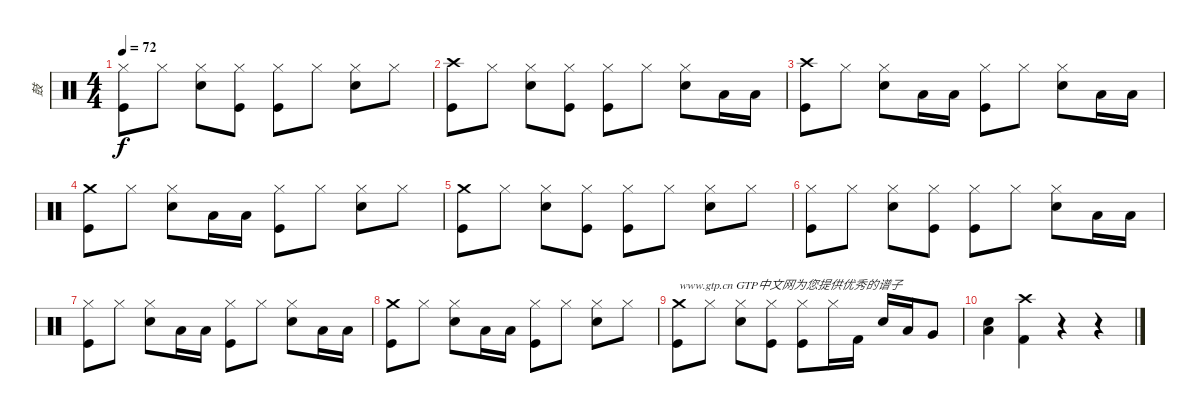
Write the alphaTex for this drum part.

\track ("鼓" "鼓") {instrument percussion}
\staff {score}
\articulation defaults
\ts (4 4)
\tempo 72
\clef neutral
\ks c
("Hi-Hat (closed)" "Kick (hit)").8{dy f} "Hi-Hat (closed)".8 ("Hi-Hat (closed)" "Snare (hit) 2").8 ("Hi-Hat (closed)" "Kick (hit)").8 ("Hi-Hat (closed)" "Kick (hit)").8 "Hi-Hat (closed)".8 ("Hi-Hat (closed)" "Snare (hit) 2").8 "Hi-Hat (closed)".8 |
("Crash high (hit)" "Kick (hit)").8 "Hi-Hat (closed)".8 ("Hi-Hat (closed)" "Snare (hit) 2").8 ("Hi-Hat (closed)" "Kick (hit)").8 ("Hi-Hat (closed)" "Kick (hit)").8 "Hi-Hat (closed)".8 ("Hi-Hat (closed)" "Snare (hit) 2").8 "Low Floor Tom (hit)".16 "Low Floor Tom (hit)".16 |
("Crash high (hit)" "Kick (hit)").8 "Hi-Hat (closed)".8 ("Hi-Hat (closed)" "Snare (hit) 2").8 "Low Floor Tom (hit)".16 "Low Floor Tom (hit)".16 ("Hi-Hat (closed)" "Kick (hit)").8 "Hi-Hat (closed)".8 ("Hi-Hat (closed)" "Snare (hit) 2").8 "Low Floor Tom (hit)".16 "Low Floor Tom (hit)".16 |
("Crash medium (hit)" "Kick (hit)").8 "Hi-Hat (closed)".8 ("Hi-Hat (closed)" "Snare (hit) 2").8 "Low Floor Tom (hit)".16 "Low Floor Tom (hit)".16 ("Hi-Hat (closed)" "Kick (hit)").8 "Hi-Hat (closed)".8 ("Hi-Hat (closed)" "Snare (hit) 2").8 "Hi-Hat (closed)".8 |
("Crash medium (hit)" "Kick (hit)").8 "Hi-Hat (closed)".8 ("Hi-Hat (closed)" "Snare (hit) 2").8 ("Hi-Hat (closed)" "Kick (hit)").8 ("Hi-Hat (closed)" "Kick (hit)").8 "Hi-Hat (closed)".8 ("Hi-Hat (closed)" "Snare (hit) 2").8 "Hi-Hat (closed)".8 |
("Hi-Hat (closed)" "Kick (hit)").8 "Hi-Hat (closed)".8 ("Hi-Hat (closed)" "Snare (hit) 2").8 ("Hi-Hat (closed)" "Kick (hit)").8 ("Hi-Hat (closed)" "Kick (hit)").8 "Hi-Hat (closed)".8 ("Hi-Hat (closed)" "Snare (hit) 2").8 "Low Floor Tom (hit)".16 "Low Floor Tom (hit)".16 |
("Hi-Hat (closed)" "Kick (hit)").8 "Hi-Hat (closed)".8 ("Hi-Hat (closed)" "Snare (hit) 2").8 "Low Floor Tom (hit)".16 "Low Floor Tom (hit)".16 ("Hi-Hat (closed)" "Kick (hit)").8 "Hi-Hat (closed)".8 ("Hi-Hat (closed)" "Snare (hit) 2").8 "Low Floor Tom (hit)".16 "Low Floor Tom (hit)".16 |
("Crash medium (hit)" "Kick (hit)").8 "Hi-Hat (closed)".8 ("Hi-Hat (closed)" "Snare (hit) 2").8 "Low Floor Tom (hit)".16 "Low Floor Tom (hit)".16 ("Hi-Hat (closed)" "Kick (hit)").8 "Hi-Hat (closed)".8 ("Hi-Hat (closed)" "Snare (hit) 2").8 "Hi-Hat (closed)".8 |
("Crash medium (hit)" "Kick (hit)").8{txt "www.gtp.cn GTP中文网为您提供优秀的谱子"} "Hi-Hat (closed)".8 ("Hi-Hat (closed)" "Snare (hit) 2").8 ("Hi-Hat (closed)" "Kick (hit)").8 ("Hi-Hat (closed)" "Kick (hit)").8 "Hi-Hat (closed)".16 "Kick (hit) 2".16 "Snare (hit) 2".16 "Low Tom (hit)".16 "Very Low Tom (hit)".8 |
("Electric Snare (hit)" "Low Floor Tom (hit)").4 ("Crash high (hit)" "Kick (hit) 2").4 r.4 r.4
